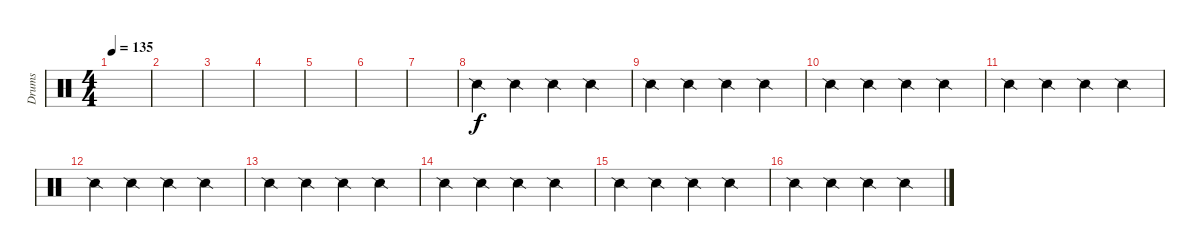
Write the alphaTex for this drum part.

\track ("Drums" "Drums") {instrument percussion}
\staff {score}
\articulation defaults
\ts (4 4)
\tempo 135
\clef neutral
\ks c
|
|
|
|
|
|
|
"Snare (side stick) 2".4 "Snare (side stick) 2".4 "Snare (side stick) 2".4 "Snare (side stick) 2".4 |
"Snare (side stick) 2".4 "Snare (side stick) 2".4 "Snare (side stick) 2".4 "Snare (side stick) 2".4 |
"Snare (side stick) 2".4 "Snare (side stick) 2".4 "Snare (side stick) 2".4 "Snare (side stick) 2".4 |
"Snare (side stick) 2".4 "Snare (side stick) 2".4 "Snare (side stick) 2".4 "Snare (side stick) 2".4 |
"Snare (side stick) 2".4 "Snare (side stick) 2".4 "Snare (side stick) 2".4 "Snare (side stick) 2".4 |
"Snare (side stick) 2".4 "Snare (side stick) 2".4 "Snare (side stick) 2".4 "Snare (side stick) 2".4 |
"Snare (side stick) 2".4 "Snare (side stick) 2".4 "Snare (side stick) 2".4 "Snare (side stick) 2".4 |
"Snare (side stick) 2".4 "Snare (side stick) 2".4 "Snare (side stick) 2".4 "Snare (side stick) 2".4 |
"Snare (side stick) 2".4 "Snare (side stick) 2".4 "Snare (side stick) 2".4 "Snare (side stick) 2".4
